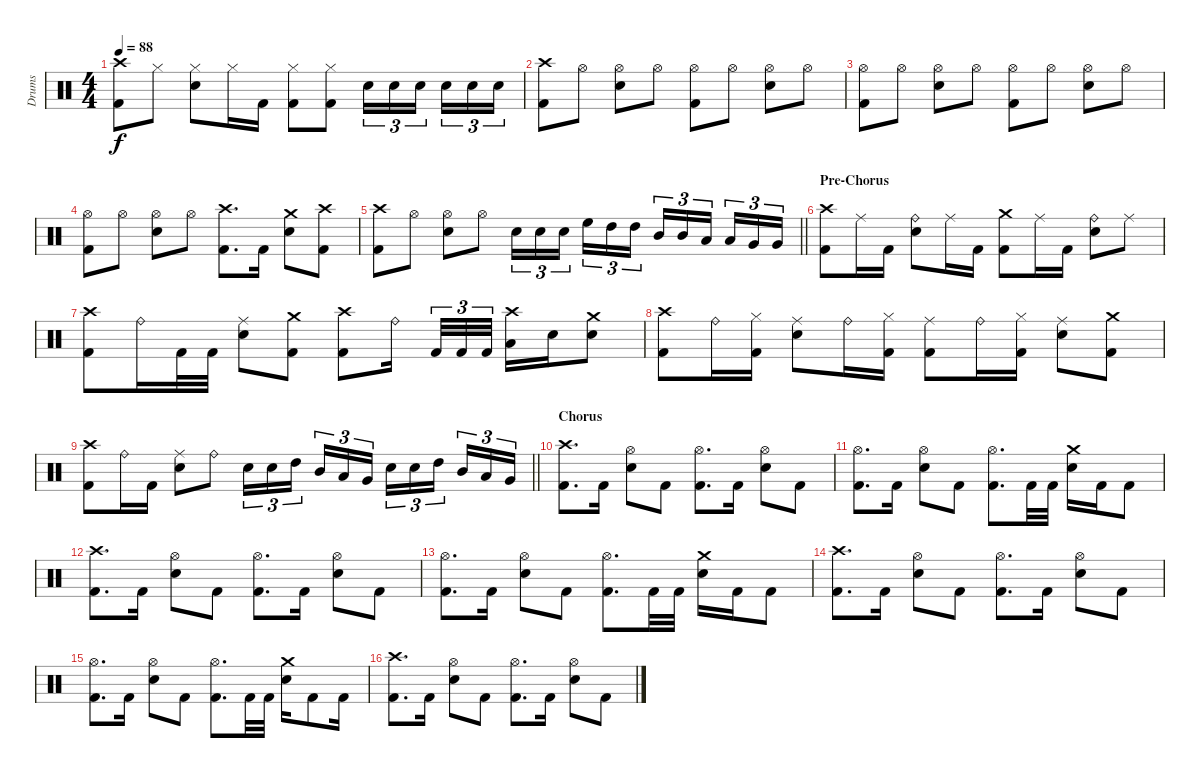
\track ("Drums" "Drums") {instrument percussion}
\staff {score}
\articulation defaults
\ts (4 4)
\tempo 88
\clef neutral
\ks c
("Crash high (hit)" "Kick (hit) 2").8{dy f} "Hi-Hat (closed)".8 ("Hi-Hat (closed)" "Snare (hit) 2").8 "Hi-Hat (closed)".16 "Kick (hit) 2".16 ("Hi-Hat (closed)" "Kick (hit) 2").8 ("Hi-Hat (closed)" "Kick (hit) 2").8 "Snare (hit) 2".16{tu (3 2)} "Snare (hit) 2".16{tu (3 2)} "Snare (hit) 2".16{tu (3 2) beam splitsecondary} "Snare (hit) 2".16{tu (3 2)} "Snare (hit) 2".16{tu (3 2)} "Snare (hit) 2".16{tu (3 2)} |
("Crash high (hit)" "Kick (hit) 2").8 "Hi-Hat (open)".8 ("Hi-Hat (open)" "Snare (hit) 2").8 "Hi-Hat (open)".8 ("Hi-Hat (open)" "Kick (hit) 2").8 "Hi-Hat (open)".8 ("Hi-Hat (open)" "Snare (hit) 2").8 "Hi-Hat (open)".8 |
("Hi-Hat (open)" "Kick (hit) 2").8 "Hi-Hat (open)".8 ("Hi-Hat (open)" "Snare (hit) 2").8 "Hi-Hat (open)".8 ("Hi-Hat (open)" "Kick (hit) 2").8 "Hi-Hat (open)".8 ("Hi-Hat (open)" "Snare (hit) 2").8 "Hi-Hat (open)".8 |
("Hi-Hat (open)" "Kick (hit) 2").8 "Hi-Hat (open)".8 ("Hi-Hat (open)" "Snare (hit) 2").8 "Hi-Hat (open)".8 ("Crash high (hit)" "Kick (hit) 2").8{d} "Kick (hit) 2".16 ("Crash medium (hit)" "Snare (hit) 2").8 ("Crash high (hit)" "Kick (hit) 2").8 |
\barLineRight lightlight
("Crash high (hit)" "Kick (hit) 2").8 "Hi-Hat (open)".8 ("Hi-Hat (open)" "Snare (hit) 2").8 "Hi-Hat (open)".8 "Snare (hit) 2".16{tu (3 2)} "Snare (hit) 2".16{tu (3 2)} "Snare (hit) 2".16{tu (3 2) beam splitsecondary} "High Floor Tom (hit)".16{tu (3 2)} "High Tom (hit)".16{tu (3 2)} "High Tom (hit)".16{tu (3 2)} "Mid Tom (hit)".16{tu (3 2)} "Mid Tom (hit)".16{tu (3 2)} "Low Tom (hit)".16{tu (3 2) beam splitsecondary} "Low Tom (hit)".16{tu (3 2)} "Very Low Tom (hit)".16{tu (3 2)} "Very Low Tom (hit)".16{tu (3 2)} |
\section ("" "Pre-Chorus")
("Crash high (hit)" "Kick (hit) 2").8 "Ride (middle)".16 "Kick (hit) 2".16 ("Ride (bell)" "Snare (hit) 2").8 "Ride (middle)".16 "Kick (hit) 2".16 ("Crash medium (hit)" "Kick (hit) 2").8 "Ride (middle)".16 "Kick (hit) 2".16 ("Ride (bell)" "Snare (hit) 2").8 "Ride (middle)".8 |
("Crash high (hit)" "Kick (hit) 2").8 "Ride (bell)".16 "Kick (hit) 2".32 "Kick (hit) 2".32 ("Ride (middle)" "Snare (hit) 2").8 ("Crash medium (hit)" "Kick (hit) 2").8 ("Crash high (hit)" "Kick (hit) 2").8 "Ride (bell)".16{beam splitsecondary} "Kick (hit) 2".32{tu (3 2)} "Kick (hit) 2".32{tu (3 2)} "Kick (hit) 2".32{tu (3 2)} ("Crash high (hit)" "Low Tom (hit)").16 "Electric Snare (hit)".16 ("Crash medium (hit)" "Snare (hit) 2").8 |
("Crash high (hit)" "Kick (hit) 2").8 "Ride (bell)".16 ("Hi-Hat (closed)" "Kick (hit) 2").16 ("Ride (middle)" "Snare (hit) 2").8 "Ride (bell)".16 ("Hi-Hat (closed)" "Kick (hit) 2").16 ("Ride (middle)" "Kick (hit) 2").8 "Ride (bell)".16 ("Hi-Hat (closed)" "Kick (hit) 2").16 ("Ride (middle)" "Snare (hit) 2").8 ("Crash medium (hit)" "Kick (hit) 2").8 |
\barLineRight lightlight
("Crash high (hit)" "Kick (hit) 2").8 "Ride (bell)".16 "Kick (hit) 2".16 ("Ride (middle)" "Snare (hit) 2").8 "Ride (bell)".8 "Snare (hit) 2".16{tu (3 2)} "Snare (hit) 2".16{tu (3 2)} "High Tom (hit)".16{tu (3 2) beam splitsecondary} "Mid Tom (hit)".16{tu (3 2)} "Low Tom (hit)".16{tu (3 2)} "Very Low Tom (hit)".16{tu (3 2)} "Snare (hit) 2".16{tu (3 2)} "Snare (hit) 2".16{tu (3 2)} "High Tom (hit)".16{tu (3 2) beam splitsecondary} "Mid Tom (hit)".16{tu (3 2)} "Low Tom (hit)".16{tu (3 2)} "Very Low Tom (hit)".16{tu (3 2)} |
\section ("" "Chorus")
("Crash high (hit)" "Kick (hit) 2").8{d} "Kick (hit) 2".16 ("Hi-Hat (open)" "Snare (hit) 2").8 "Kick (hit) 2".8 ("Hi-Hat (open)" "Kick (hit) 2").8{d} "Kick (hit) 2".16 ("Hi-Hat (open)" "Snare (hit) 2").8 "Kick (hit) 2".8 |
("Hi-Hat (open)" "Kick (hit) 2").8{d} "Kick (hit) 2".16 ("Hi-Hat (open)" "Snare (hit) 2").8 "Kick (hit) 2".8 ("Hi-Hat (open)" "Kick (hit) 2").8{d} "Kick (hit) 2".32 "Kick (hit) 2".32 ("Crash medium (hit)" "Snare (hit) 2").16 "Kick (hit) 2".16 "Kick (hit) 2".8 |
("Crash high (hit)" "Kick (hit) 2").8{d} "Kick (hit) 2".16 ("Hi-Hat (open)" "Snare (hit) 2").8 "Kick (hit) 2".8 ("Hi-Hat (open)" "Kick (hit) 2").8{d} "Kick (hit) 2".16 ("Hi-Hat (open)" "Snare (hit) 2").8 "Kick (hit) 2".8 |
("Hi-Hat (open)" "Kick (hit) 2").8{d} "Kick (hit) 2".16 ("Hi-Hat (open)" "Snare (hit) 2").8 "Kick (hit) 2".8 ("Hi-Hat (open)" "Kick (hit) 2").8{d} "Kick (hit) 2".32 "Kick (hit) 2".32 ("Crash medium (hit)" "Snare (hit) 2").16 "Kick (hit) 2".16 "Kick (hit) 2".8 |
("Crash high (hit)" "Kick (hit) 2").8{d} "Kick (hit) 2".16 ("Hi-Hat (open)" "Snare (hit) 2").8 "Kick (hit) 2".8 ("Hi-Hat (open)" "Kick (hit) 2").8{d} "Kick (hit) 2".16 ("Hi-Hat (open)" "Snare (hit) 2").8 "Kick (hit) 2".8 |
("Hi-Hat (open)" "Kick (hit) 2").8{d} "Kick (hit) 2".16 ("Hi-Hat (open)" "Snare (hit) 2").8 "Kick (hit) 2".8 ("Hi-Hat (open)" "Kick (hit) 2").8{d} "Kick (hit) 2".32 "Kick (hit) 2".32 ("Crash medium (hit)" "Snare (hit) 2").16 "Kick (hit) 2".8 "Kick (hit) 2".16 |
("Crash high (hit)" "Kick (hit) 2").8{d} "Kick (hit) 2".16 ("Hi-Hat (open)" "Snare (hit) 2").8 "Kick (hit) 2".8 ("Hi-Hat (open)" "Kick (hit) 2").8{d} "Kick (hit) 2".16 ("Hi-Hat (open)" "Snare (hit) 2").8 "Kick (hit) 2".8
